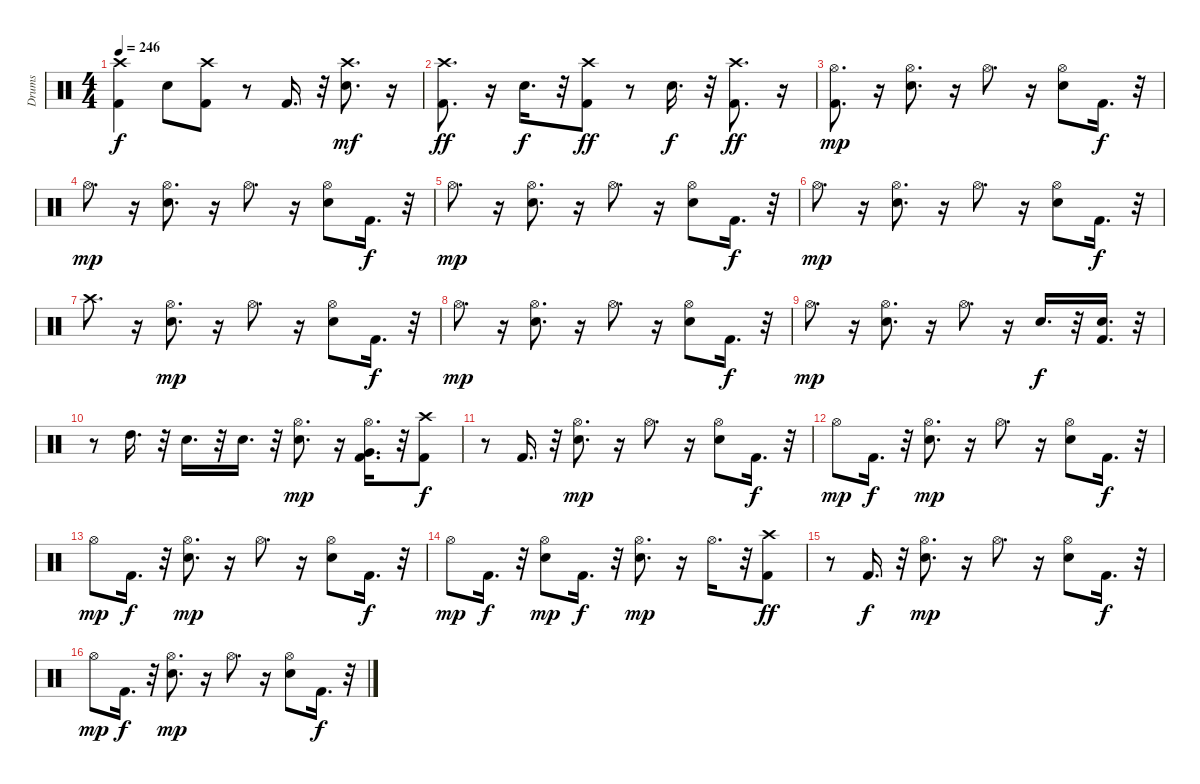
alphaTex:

\track ("Drums" "Drums") {instrument percussion}
\staff {score}
\articulation defaults
\ts (4 4)
\tempo 246
\clef neutral
\ks c
("Kick (hit) 2" "Crash high (hit)").4{dy f} "Electric Snare (hit)".8 ("Kick (hit) 2" "Crash high (hit)").8 r.8 "Kick (hit) 2".16{d} r.32 ("Crash high (hit)" "Electric Snare (hit)").8{d dy mf} r.16 |
("Kick (hit) 2" "Crash high (hit)").8{d dy ff} r.16 "Electric Snare (hit)".16{d dy f} r.32 ("Kick (hit) 2" "Crash high (hit)").8{dy ff} r.8 "Electric Snare (hit)".16{d dy f} r.32 ("Kick (hit) 2" "Crash high (hit)").8{d dy ff} r.16 |
("Kick (hit) 2" "Hi-Hat (open)").8{d dy mp} r.16 ("Electric Snare (hit)" "Hi-Hat (open)").8{d} r.16 "Hi-Hat (open)".8{d} r.16 ("Hi-Hat (open)" "Electric Snare (hit)").8 "Kick (hit) 2".16{d dy f} r.32 |
"Hi-Hat (open)".8{d dy mp} r.16 ("Hi-Hat (open)" "Electric Snare (hit)").8{d} r.16 "Hi-Hat (open)".8{d} r.16 ("Hi-Hat (open)" "Electric Snare (hit)").8 "Kick (hit) 2".16{d dy f} r.32 |
"Hi-Hat (open)".8{d dy mp} r.16 ("Hi-Hat (open)" "Electric Snare (hit)").8{d} r.16 "Hi-Hat (open)".8{d} r.16 ("Hi-Hat (open)" "Electric Snare (hit)").8 "Kick (hit) 2".16{d dy f} r.32 |
"Hi-Hat (open)".8{d dy mp} r.16 ("Hi-Hat (open)" "Electric Snare (hit)").8{d} r.16 "Hi-Hat (open)".8{d} r.16 ("Hi-Hat (open)" "Electric Snare (hit)").8 "Kick (hit) 2".16{d dy f} r.32 |
"Crash high (hit)".8{d} r.16 ("Electric Snare (hit)" "Hi-Hat (open)").8{d dy mp} r.16 "Hi-Hat (open)".8{d} r.16 ("Hi-Hat (open)" "Electric Snare (hit)").8 "Kick (hit) 2".16{d dy f} r.32 |
"Hi-Hat (open)".8{d dy mp} r.16 ("Hi-Hat (open)" "Electric Snare (hit)").8{d} r.16 "Hi-Hat (open)".8{d} r.16 ("Hi-Hat (open)" "Electric Snare (hit)").8 "Kick (hit) 2".16{d dy f} r.32 |
"Hi-Hat (open)".8{d dy mp} r.16 ("Hi-Hat (open)" "Electric Snare (hit)").8{d} r.16 "Hi-Hat (open)".8{d} r.16 "Electric Snare (hit)".16{d dy f} r.32 ("Kick (hit) 2" "Electric Snare (hit)").16{d} r.32 |
r.8 "High Tom (hit)".16{d} r.32 "Electric Snare (hit)".16{d} r.32 "Electric Snare (hit)".16{d} r.32 ("Hi-Hat (open)" "Electric Snare (hit)").8{d dy mp} r.16 ("Hi-Hat (open)" "Kick (hit) 2" "Very Low Tom (hit)").16{d} r.32 ("Kick (hit) 2" "Crash high (hit)").8{dy f} |
r.8 "Kick (hit) 2".16{d} r.32 ("Electric Snare (hit)" "Hi-Hat (open)").8{d dy mp} r.16 "Hi-Hat (open)".8{d} r.16 ("Electric Snare (hit)" "Hi-Hat (open)").8 "Kick (hit) 2".16{d dy f} r.32 |
"Hi-Hat (open)".8{dy mp} "Kick (hit) 2".16{d dy f} r.32 ("Electric Snare (hit)" "Hi-Hat (open)").8{d dy mp} r.16 "Hi-Hat (open)".8{d} r.16 ("Electric Snare (hit)" "Hi-Hat (open)").8 "Kick (hit) 2".16{d dy f} r.32 |
"Hi-Hat (open)".8{dy mp} "Kick (hit) 2".16{d dy f} r.32 ("Electric Snare (hit)" "Hi-Hat (open)").8{d dy mp} r.16 "Hi-Hat (open)".8{d} r.16 ("Electric Snare (hit)" "Hi-Hat (open)").8 "Kick (hit) 2".16{d dy f} r.32 |
"Hi-Hat (open)".8{dy mp} "Kick (hit) 2".16{d dy f} r.32 ("Electric Snare (hit)" "Hi-Hat (open)").8{dy mp} "Kick (hit) 2".16{d dy f} r.32 ("Electric Snare (hit)" "Hi-Hat (open)").8{d dy mp} r.16 "Hi-Hat (open)".16{d} r.32 ("Crash high (hit)" "Kick (hit) 2").8{dy ff} |
r.8 "Kick (hit) 2".16{d dy f} r.32 ("Electric Snare (hit)" "Hi-Hat (open)").8{d dy mp} r.16 "Hi-Hat (open)".8{d} r.16 ("Electric Snare (hit)" "Hi-Hat (open)").8 "Kick (hit) 2".16{d dy f} r.32 |
"Hi-Hat (open)".8{dy mp} "Kick (hit) 2".16{d dy f} r.32 ("Electric Snare (hit)" "Hi-Hat (open)").8{d dy mp} r.16 "Hi-Hat (open)".8{d} r.16 ("Electric Snare (hit)" "Hi-Hat (open)").8 "Kick (hit) 2".16{d dy f} r.32
